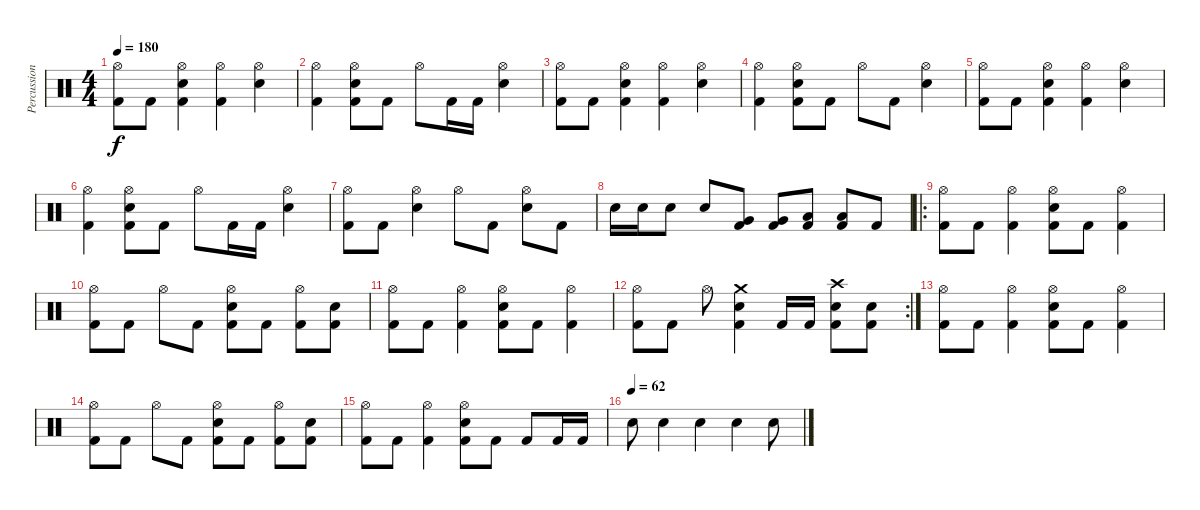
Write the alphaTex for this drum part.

\track ("Percussion" "Percussion") {instrument percussion}
\staff {score}
\articulation defaults
\ts (4 4)
\tempo 180
\clef neutral
\ks c
("Hi-Hat (open)" "Kick (hit) 2").8{dy f} "Kick (hit) 2".8 ("Hi-Hat (open)" "Electric Snare (hit)" "Kick (hit) 2").4 ("Hi-Hat (open)" "Kick (hit) 2").4 ("Hi-Hat (open)" "Electric Snare (hit)").4 |
("Hi-Hat (open)" "Kick (hit) 2").4 ("Hi-Hat (open)" "Electric Snare (hit)" "Kick (hit) 2").8 "Kick (hit) 2".8 "Hi-Hat (open)".8 "Kick (hit) 2".16 "Kick (hit) 2".16 ("Hi-Hat (open)" "Electric Snare (hit)").4 |
("Hi-Hat (open)" "Kick (hit) 2").8 "Kick (hit) 2".8 ("Hi-Hat (open)" "Electric Snare (hit)" "Kick (hit) 2").4 ("Hi-Hat (open)" "Kick (hit) 2").4 ("Hi-Hat (open)" "Electric Snare (hit)").4 |
("Hi-Hat (open)" "Kick (hit) 2").4 ("Hi-Hat (open)" "Electric Snare (hit)" "Kick (hit) 2").8 "Kick (hit) 2".8 "Hi-Hat (open)".8 "Kick (hit) 2".8 ("Hi-Hat (open)" "Electric Snare (hit)").4 |
("Hi-Hat (open)" "Kick (hit) 2").8 "Kick (hit) 2".8 ("Hi-Hat (open)" "Electric Snare (hit)" "Kick (hit) 2").4 ("Hi-Hat (open)" "Kick (hit) 2").4 ("Hi-Hat (open)" "Electric Snare (hit)").4 |
("Hi-Hat (open)" "Kick (hit) 2").4 ("Hi-Hat (open)" "Electric Snare (hit)" "Kick (hit) 2").8 "Kick (hit) 2".8 "Hi-Hat (open)".8 "Kick (hit) 2".16 "Kick (hit) 2".16 ("Hi-Hat (open)" "Electric Snare (hit)").4 |
("Hi-Hat (open)" "Kick (hit) 2").8 "Kick (hit) 2".8 ("Hi-Hat (open)" "Electric Snare (hit)").4 "Hi-Hat (open)".8 "Kick (hit) 2".8 ("Hi-Hat (open)" "Electric Snare (hit)").8 "Kick (hit) 2".8 |
"Electric Snare (hit)".16 "Electric Snare (hit)".16 "Electric Snare (hit)".8 "Electric Snare (hit)".8 ("Very Low Tom (hit)" "Kick (hit) 2").8 ("Very Low Tom (hit)" "Kick (hit) 2").8 ("Low Floor Tom (hit)" "Kick (hit) 2").8 ("Low Floor Tom (hit)" "Kick (hit) 2").8 "Kick (hit) 2".8 |
\ro
("Hi-Hat (open)" "Kick (hit) 2").8 "Kick (hit) 2".8 ("Hi-Hat (open)" "Kick (hit) 2").4 ("Hi-Hat (open)" "Electric Snare (hit)" "Kick (hit) 2").8 "Kick (hit) 2".8 ("Hi-Hat (open)" "Kick (hit) 2").4 |
("Hi-Hat (open)" "Kick (hit) 2").8 "Kick (hit) 2".8 "Hi-Hat (open)".8 "Kick (hit) 2".8 ("Hi-Hat (open)" "Electric Snare (hit)" "Kick (hit) 2").8 "Kick (hit) 2".8 ("Hi-Hat (open)" "Kick (hit) 2").8 ("Electric Snare (hit)" "Kick (hit) 2").8 |
("Hi-Hat (open)" "Kick (hit) 2").8 "Kick (hit) 2".8 ("Hi-Hat (open)" "Kick (hit) 2").4 ("Hi-Hat (open)" "Electric Snare (hit)" "Kick (hit) 2").8 "Kick (hit) 2".8 ("Hi-Hat (open)" "Kick (hit) 2").4 |
\rc 2
("Hi-Hat (open)" "Kick (hit) 2").8 "Kick (hit) 2".8 "Hi-Hat (open)".8 ("Crash medium (hit)" "Electric Snare (hit)" "Kick (hit) 2").4 "Kick (hit) 2".16 "Kick (hit) 2".16 ("Crash high (hit)" "Electric Snare (hit)" "Kick (hit) 2").8 ("Electric Snare (hit)" "Kick (hit) 2").8 |
("Hi-Hat (open)" "Kick (hit) 2").8 "Kick (hit) 2".8 ("Hi-Hat (open)" "Kick (hit) 2").4 ("Hi-Hat (open)" "Electric Snare (hit)" "Kick (hit) 2").8 "Kick (hit) 2".8 ("Hi-Hat (open)" "Kick (hit) 2").4 |
("Hi-Hat (open)" "Kick (hit) 2").8 "Kick (hit) 2".8 "Hi-Hat (open)".8 "Kick (hit) 2".8 ("Hi-Hat (open)" "Electric Snare (hit)" "Kick (hit) 2").8 "Kick (hit) 2".8 ("Hi-Hat (open)" "Kick (hit) 2").8 ("Electric Snare (hit)" "Kick (hit) 2").8 |
("Hi-Hat (open)" "Kick (hit) 2").8 "Kick (hit) 2".8 ("Hi-Hat (open)" "Kick (hit) 2").4 ("Hi-Hat (open)" "Electric Snare (hit)" "Kick (hit) 2").8 "Kick (hit) 2".8 "Kick (hit) 2".8 "Kick (hit) 2".16 "Kick (hit) 2".16 |
\tempo (62)
"Electric Snare (hit)".8 "Electric Snare (hit)".4 "Electric Snare (hit)".4 "Electric Snare (hit)".4 "Electric Snare (hit)".8
